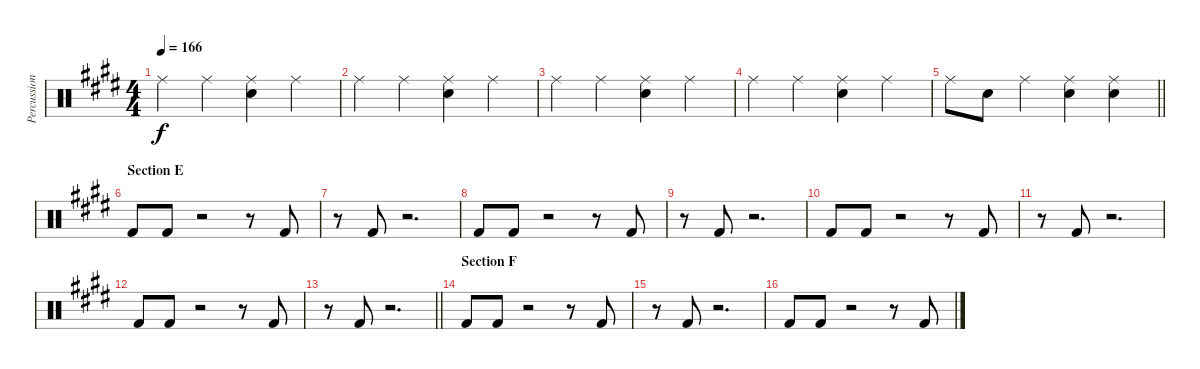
\track ("Percussion - Other" "Percussion") {instrument percussion}
\staff {score}
\articulation defaults
\ts (4 4)
\tempo 166
\clef neutral
\ks e "Ride (middle)".4{dy f} "Ride (middle)".4
("Ride (middle)" "Snare (hit) 2").4 "Ride (middle)".4 |
"Ride (middle)".4 "Ride (middle)".4 ("Ride (middle)" "Snare (hit) 2").4 "Ride (middle)".4 |
"Ride (middle)".4 "Ride (middle)".4 ("Ride (middle)" "Snare (hit) 2").4 "Ride (middle)".4 |
"Ride (middle)".4 "Ride (middle)".4 ("Ride (middle)" "Snare (hit) 2").4 "Ride (middle)".4 |
\barLineRight lightlight "Ride (middle)".8 "Snare (hit) 2".8 "Ride (middle)".4
("Ride (middle)" "Snare (hit) 2").4 ("Ride (middle)" "Snare (hit) 2").4 |
\section ("" "Section E")
"Kick (hit) 2".8 "Kick (hit) 2".8 r.2 r.8 "Kick (hit) 2".8 |
r.8 "Kick (hit) 2".8 r.2{d} |
"Kick (hit) 2".8 "Kick (hit) 2".8 r.2 r.8 "Kick (hit) 2".8 |
r.8 "Kick (hit) 2".8 r.2{d} |
"Kick (hit) 2".8 "Kick (hit) 2".8 r.2 r.8 "Kick (hit) 2".8 |
r.8 "Kick (hit) 2".8 r.2{d} |
"Kick (hit) 2".8 "Kick (hit) 2".8 r.2 r.8 "Kick (hit) 2".8 |
\barLineRight lightlight
r.8 "Kick (hit) 2".8 r.2{d} |
\section ("" "Section F")
"Kick (hit) 2".8 "Kick (hit) 2".8 r.2 r.8 "Kick (hit) 2".8 |
r.8 "Kick (hit) 2".8 r.2{d} |
"Kick (hit) 2".8 "Kick (hit) 2".8 r.2 r.8 "Kick (hit) 2".8
